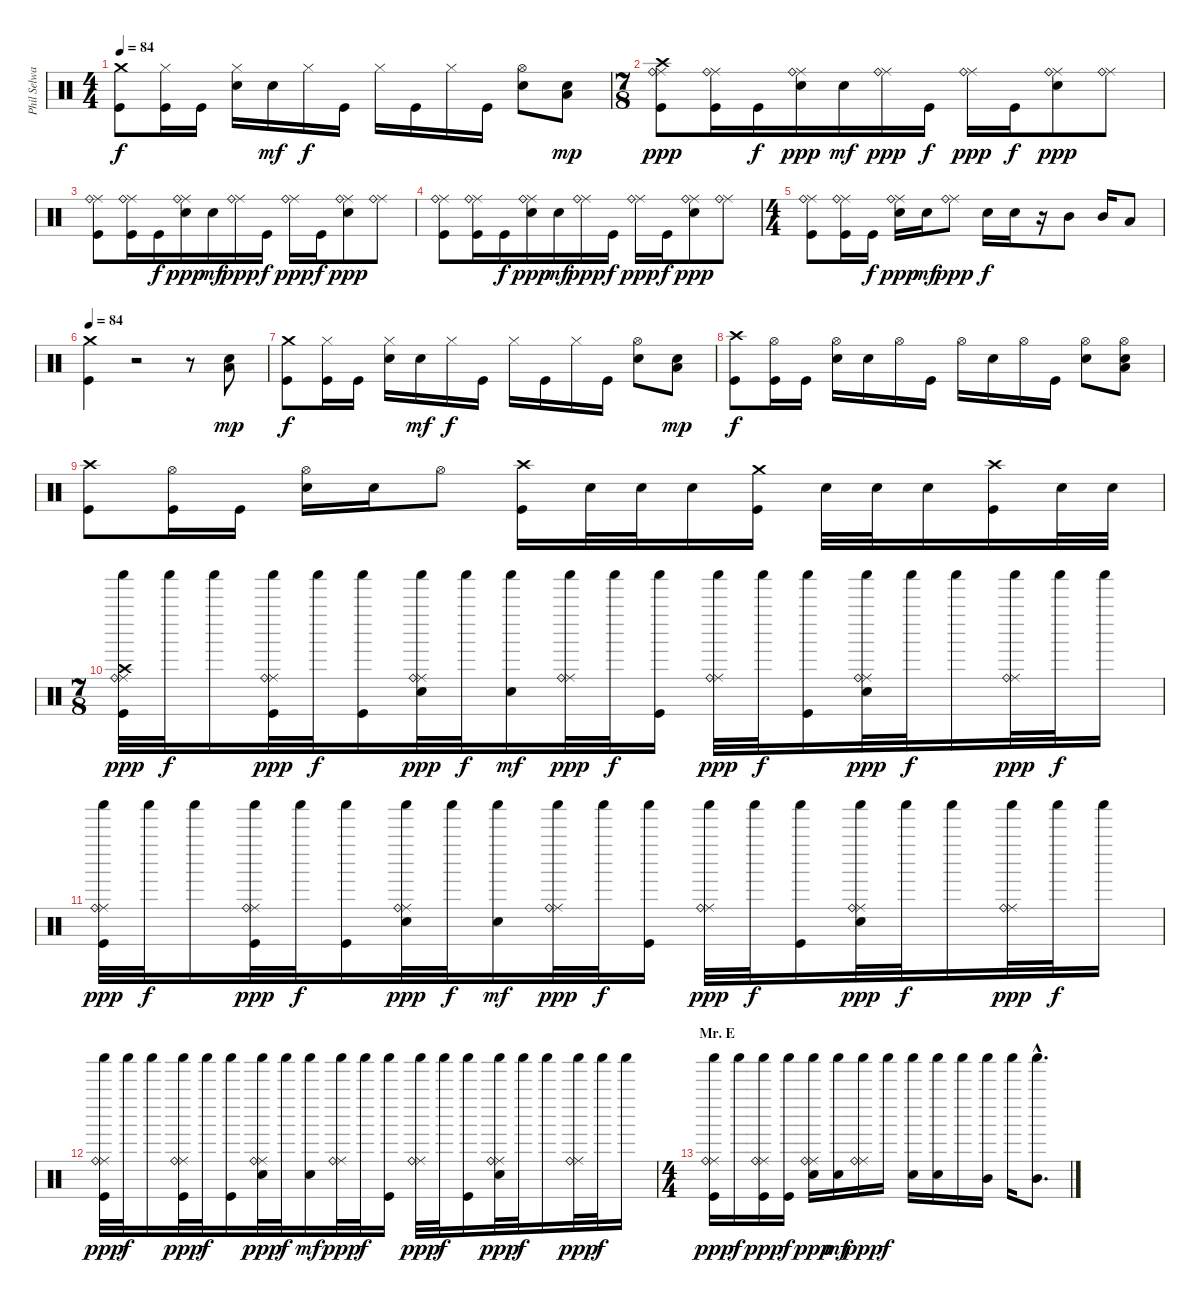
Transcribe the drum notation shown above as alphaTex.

\track ("Phil Selway" "Phil Selwa") {instrument percussion}
\staff {score}
\articulation defaults
\ts (4 4)
\tempo 84
\clef neutral
\ks c
("Crash medium (hit)" "Kick (hit)").8{dy f} ("Hi-Hat (closed)" "Kick (hit)").16 "Kick (hit)".16 ("Hi-Hat (closed)" "Snare (hit) 2").16 "Snare (hit) 2".16{dy mf} "Hi-Hat (closed)".16{dy f} "Kick (hit)".16 "Hi-Hat (closed)".16 "Kick (hit)".16 "Hi-Hat (closed)".16 "Kick (hit)".16 ("Hi-Hat (open)" "Snare (hit) 2").8 ("Snare (hit) 2" "Low Floor Tom (hit)").8{dy mp} |
\ts (7 8)
("Ride (middle)" "Ride (bell)" "Crash high (hit)" "Kick (hit)").8{dy ppp} ("Ride (middle)" "Ride (bell)" "Kick (hit)").16 "Kick (hit)".16{dy f} ("Ride (middle)" "Ride (bell)" "Snare (hit) 2").16{dy ppp} "Snare (hit) 2".16{dy mf} ("Ride (middle)" "Ride (bell)").16{dy ppp} "Kick (hit)".16{dy f} ("Ride (middle)" "Ride (bell)").16{dy ppp} "Kick (hit)".16{dy f} ("Ride (middle)" "Ride (bell)" "Snare (hit) 2").8{dy ppp} ("Ride (middle)" "Ride (bell)").8 |
("Ride (middle)" "Ride (bell)" "Kick (hit)").8 ("Ride (middle)" "Ride (bell)" "Kick (hit)").16 "Kick (hit)".16{dy f} ("Ride (middle)" "Ride (bell)" "Snare (hit) 2").16{dy ppp} "Snare (hit) 2".16{dy mf} ("Ride (middle)" "Ride (bell)").16{dy ppp} "Kick (hit)".16{dy f} ("Ride (middle)" "Ride (bell)").16{dy ppp} "Kick (hit)".16{dy f} ("Ride (middle)" "Ride (bell)" "Snare (hit) 2").8{dy ppp} ("Ride (middle)" "Ride (bell)").8 |
("Ride (middle)" "Ride (bell)" "Kick (hit)").8 ("Ride (middle)" "Ride (bell)" "Kick (hit)").16 "Kick (hit)".16{dy f} ("Ride (middle)" "Ride (bell)" "Snare (hit) 2").16{dy ppp} "Snare (hit) 2".16{dy mf} ("Ride (middle)" "Ride (bell)").16{dy ppp} "Kick (hit)".16{dy f} ("Ride (middle)" "Ride (bell)").16{dy ppp} "Kick (hit)".16{dy f} ("Ride (middle)" "Ride (bell)" "Snare (hit) 2").8{dy ppp} ("Ride (middle)" "Ride (bell)").8 |
\ts (4 4)
("Ride (middle)" "Ride (bell)" "Kick (hit)").8 ("Ride (middle)" "Ride (bell)" "Kick (hit)").16 "Kick (hit)".16{dy f} ("Ride (middle)" "Ride (bell)" "Snare (hit) 2").16{dy ppp} "Snare (hit) 2".16{dy mf} ("Ride (middle)" "Ride (bell)").8{dy ppp} "Snare (hit) 2".16{dy f} "Snare (hit) 2".16 r.16 "Mid Tom (hit)".8 "Mid Tom (hit)".16 "Low Tom (hit)".8 |
\tempo 84
("Crash medium (hit)" "Kick (hit)").4 r.2 r.8 ("Snare (hit) 2" "Low Tom (hit)").8{dy mp} |
("Crash medium (hit)" "Kick (hit)").8{dy f} ("Hi-Hat (closed)" "Kick (hit)").16 "Kick (hit)".16 ("Hi-Hat (closed)" "Snare (hit) 2").16 "Snare (hit) 2".16{dy mf} "Hi-Hat (closed)".16{dy f} "Kick (hit)".16 "Hi-Hat (closed)".16 "Kick (hit)".16 "Hi-Hat (closed)".16 "Kick (hit)".16 ("Hi-Hat (open)" "Snare (hit) 2").8 ("Snare (hit) 2" "Low Floor Tom (hit)").8{dy mp} |
("Crash high (hit)" "Kick (hit)").8{dy f} ("Hi-Hat (open)" "Kick (hit)").16 "Kick (hit)".16 ("Hi-Hat (open)" "Snare (hit) 2").16 "Snare (hit) 2".16 "Hi-Hat (open)".16 "Kick (hit)".16 "Hi-Hat (open)".16 "Snare (hit) 2".16 "Hi-Hat (open)".16 "Kick (hit)".16 ("Hi-Hat (open)" "Snare (hit) 2").8 ("Hi-Hat (open)" "Snare (hit) 2" "Low Floor Tom (hit)").8 |
("Crash high (hit)" "Kick (hit)").8 ("Hi-Hat (open)" "Kick (hit)").16 "Kick (hit)".16 ("Hi-Hat (open)" "Snare (hit) 2").16 "Snare (hit) 2".16 "Hi-Hat (open)".8 ("Crash high (hit)" "Kick (hit)").16 "Snare (hit) 2".32 "Snare (hit) 2".32 "Snare (hit) 2".16 ("Crash medium (hit)" "Kick (hit)").16 "Snare (hit) 2".32 "Snare (hit) 2".32 "Snare (hit) 2".16 ("Crash high (hit)" "Kick (hit)").16 "Snare (hit) 2".32 "Snare (hit) 2".32 |
\ts (7 8)
("Ride (middle)" "Ride (bell)" "Crash high (hit)" "Shaker (hit)" "Kick (hit)").32{dy ppp} "Shaker (hit)".32{dy f} "Shaker (hit)".16 ("Ride (middle)" "Ride (bell)" "Shaker (hit)" "Kick (hit)").32{dy ppp} "Shaker (hit)".32{dy f} ("Shaker (hit)" "Kick (hit)").16 ("Ride (middle)" "Ride (bell)" "Snare (hit) 2" "Shaker (hit)").32{dy ppp} "Shaker (hit)".32{dy f} ("Snare (hit) 2" "Shaker (hit)").16{dy mf} ("Ride (middle)" "Ride (bell)" "Shaker (hit)").32{dy ppp} "Shaker (hit)".32{dy f} ("Shaker (hit)" "Kick (hit)").16 ("Ride (middle)" "Ride (bell)" "Shaker (hit)").32{dy ppp} "Shaker (hit)".32{dy f} ("Shaker (hit)" "Kick (hit)").16 ("Ride (middle)" "Ride (bell)" "Snare (hit) 2" "Shaker (hit)").32{dy ppp} "Shaker (hit)".32{dy f} "Shaker (hit)".16 ("Ride (middle)" "Ride (bell)" "Shaker (hit)").32{dy ppp} "Shaker (hit)".32{dy f} "Shaker (hit)".16 |
("Ride (middle)" "Ride (bell)" "Shaker (hit)" "Kick (hit)").32{dy ppp} "Shaker (hit)".32{dy f} "Shaker (hit)".16 ("Ride (middle)" "Ride (bell)" "Shaker (hit)" "Kick (hit)").32{dy ppp} "Shaker (hit)".32{dy f} ("Shaker (hit)" "Kick (hit)").16 ("Ride (middle)" "Ride (bell)" "Snare (hit) 2" "Shaker (hit)").32{dy ppp} "Shaker (hit)".32{dy f} ("Snare (hit) 2" "Shaker (hit)").16{dy mf} ("Ride (middle)" "Ride (bell)" "Shaker (hit)").32{dy ppp} "Shaker (hit)".32{dy f} ("Shaker (hit)" "Kick (hit)").16 ("Ride (middle)" "Ride (bell)" "Shaker (hit)").32{dy ppp} "Shaker (hit)".32{dy f} ("Shaker (hit)" "Kick (hit)").16 ("Ride (middle)" "Ride (bell)" "Snare (hit) 2" "Shaker (hit)").32{dy ppp} "Shaker (hit)".32{dy f} "Shaker (hit)".16 ("Ride (middle)" "Ride (bell)" "Shaker (hit)").32{dy ppp} "Shaker (hit)".32{dy f} "Shaker (hit)".16 |
("Ride (middle)" "Ride (bell)" "Shaker (hit)" "Kick (hit)").32{dy ppp} "Shaker (hit)".32{dy f} "Shaker (hit)".16 ("Ride (middle)" "Ride (bell)" "Shaker (hit)" "Kick (hit)").32{dy ppp} "Shaker (hit)".32{dy f} ("Shaker (hit)" "Kick (hit)").16 ("Ride (middle)" "Ride (bell)" "Snare (hit) 2" "Shaker (hit)").32{dy ppp} "Shaker (hit)".32{dy f} ("Snare (hit) 2" "Shaker (hit)").16{dy mf} ("Ride (middle)" "Ride (bell)" "Shaker (hit)").32{dy ppp} "Shaker (hit)".32{dy f} ("Shaker (hit)" "Kick (hit)").16 ("Ride (middle)" "Ride (bell)" "Shaker (hit)").32{dy ppp} "Shaker (hit)".32{dy f} ("Shaker (hit)" "Kick (hit)").16 ("Ride (middle)" "Ride (bell)" "Snare (hit) 2" "Shaker (hit)").32{dy ppp} "Shaker (hit)".32{dy f} "Shaker (hit)".16 ("Ride (middle)" "Ride (bell)" "Shaker (hit)").32{dy ppp} "Shaker (hit)".32{dy f} "Shaker (hit)".16 |
\ts (4 4)
\section ("" "Mr. E")
("Ride (middle)" "Ride (bell)" "Shaker (hit)" "Kick (hit)").16{dy ppp} "Shaker (hit)".16{dy f} ("Ride (middle)" "Ride (bell)" "Shaker (hit)" "Kick (hit)").16{dy ppp} ("Shaker (hit)" "Kick (hit)").16{dy f} ("Ride (middle)" "Ride (bell)" "Shaker (hit)" "Snare (hit) 2").16{dy ppp} ("Shaker (hit)" "Snare (hit) 2").16{dy mf} ("Ride (middle)" "Ride (bell)" "Shaker (hit)").16{dy ppp} "Shaker (hit)".16{dy f} ("Shaker (hit)" "Snare (hit) 2").16 ("Shaker (hit)" "Snare (hit) 2").16 "Shaker (hit)".16 ("Mid Tom (hit)" "Shaker (hit)").16 "Shaker (hit)".16 ("Mid Tom (hit)"{hac} "Shaker (hit)"{hac}).8{d}
